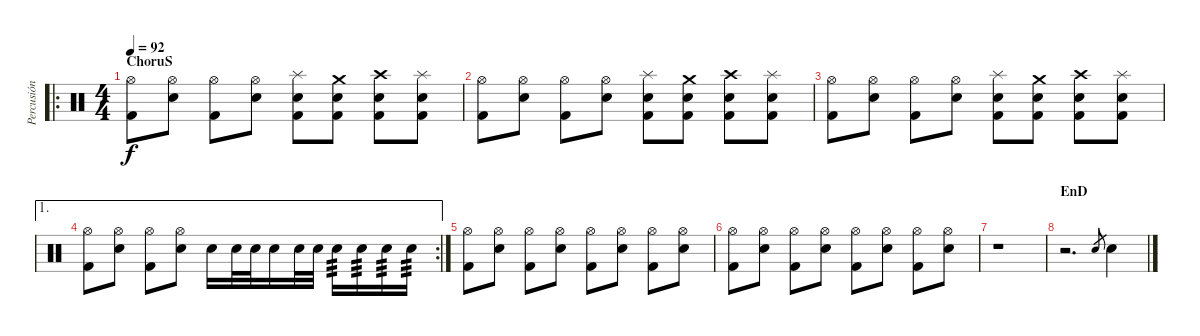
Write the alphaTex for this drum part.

\track ("Percusión" "Percusión") {instrument percussion}
\staff {score}
\articulation defaults
\ro
\ts (4 4)
\section ("" "ChoruS")
\tempo 92
\clef neutral
\ks c
("Hi-Hat (open)" "Kick (hit) 2").8{dy f} ("Hi-Hat (open)" "Electric Snare (hit)").8 ("Hi-Hat (open)" "Kick (hit) 2").8 ("Hi-Hat (open)" "Electric Snare (hit)").8 ("Splash (hit)" "Electric Snare (hit)" "Kick (hit) 2").8 ("Crash medium (hit)" "Kick (hit) 2" "Electric Snare (hit)").8 ("Crash high (hit)" "Electric Snare (hit)" "Kick (hit) 2").8 ("Splash (hit)" "Kick (hit) 2" "Electric Snare (hit)").8 |
("Hi-Hat (open)" "Kick (hit) 2").8 ("Hi-Hat (open)" "Electric Snare (hit)").8 ("Hi-Hat (open)" "Kick (hit) 2").8 ("Hi-Hat (open)" "Electric Snare (hit)").8 ("Splash (hit)" "Electric Snare (hit)" "Kick (hit) 2").8 ("Crash medium (hit)" "Kick (hit) 2" "Electric Snare (hit)").8 ("Crash high (hit)" "Electric Snare (hit)" "Kick (hit) 2").8 ("Splash (hit)" "Kick (hit) 2" "Electric Snare (hit)").8 |
("Hi-Hat (open)" "Kick (hit) 2").8 ("Hi-Hat (open)" "Electric Snare (hit)").8 ("Hi-Hat (open)" "Kick (hit) 2").8 ("Hi-Hat (open)" "Electric Snare (hit)").8 ("Splash (hit)" "Electric Snare (hit)" "Kick (hit) 2").8 ("Crash medium (hit)" "Kick (hit) 2" "Electric Snare (hit)").8 ("Crash high (hit)" "Electric Snare (hit)" "Kick (hit) 2").8 ("Splash (hit)" "Kick (hit) 2" "Electric Snare (hit)").8 |
\ae 1
\rc 2
("Hi-Hat (open)" "Kick (hit) 2").8 ("Hi-Hat (open)" "Electric Snare (hit)").8 ("Hi-Hat (open)" "Kick (hit) 2").8 ("Hi-Hat (open)" "Electric Snare (hit)").8 "Electric Snare (hit)".16 "Electric Snare (hit)".32 "Electric Snare (hit)".32 "Electric Snare (hit)".16 "Electric Snare (hit)".32 "Electric Snare (hit)".32 "Electric Snare (hit)".16{tp 3} "Electric Snare (hit)".16{tp 3} "Electric Snare (hit)".16{tp 3} "Electric Snare (hit)".16{tp 3} |
("Hi-Hat (open)" "Kick (hit) 2").8 ("Hi-Hat (open)" "Electric Snare (hit)").8 ("Hi-Hat (open)" "Kick (hit) 2").8 ("Hi-Hat (open)" "Electric Snare (hit)").8 ("Hi-Hat (open)" "Kick (hit) 2").8 ("Hi-Hat (open)" "Electric Snare (hit)").8 ("Hi-Hat (open)" "Kick (hit) 2").8 ("Hi-Hat (open)" "Electric Snare (hit)").8 |
("Hi-Hat (open)" "Kick (hit) 2").8 ("Hi-Hat (open)" "Electric Snare (hit)").8 ("Hi-Hat (open)" "Kick (hit) 2").8 ("Hi-Hat (open)" "Electric Snare (hit)").8 ("Hi-Hat (open)" "Kick (hit) 2").8 ("Hi-Hat (open)" "Electric Snare (hit)").8 ("Hi-Hat (open)" "Kick (hit) 2").8 ("Hi-Hat (open)" "Electric Snare (hit)").8 |
r.1 |
\section ("" "EnD")
r.2{d} "Electric Snare (hit)".8{gr} "Electric Snare (hit)".4
